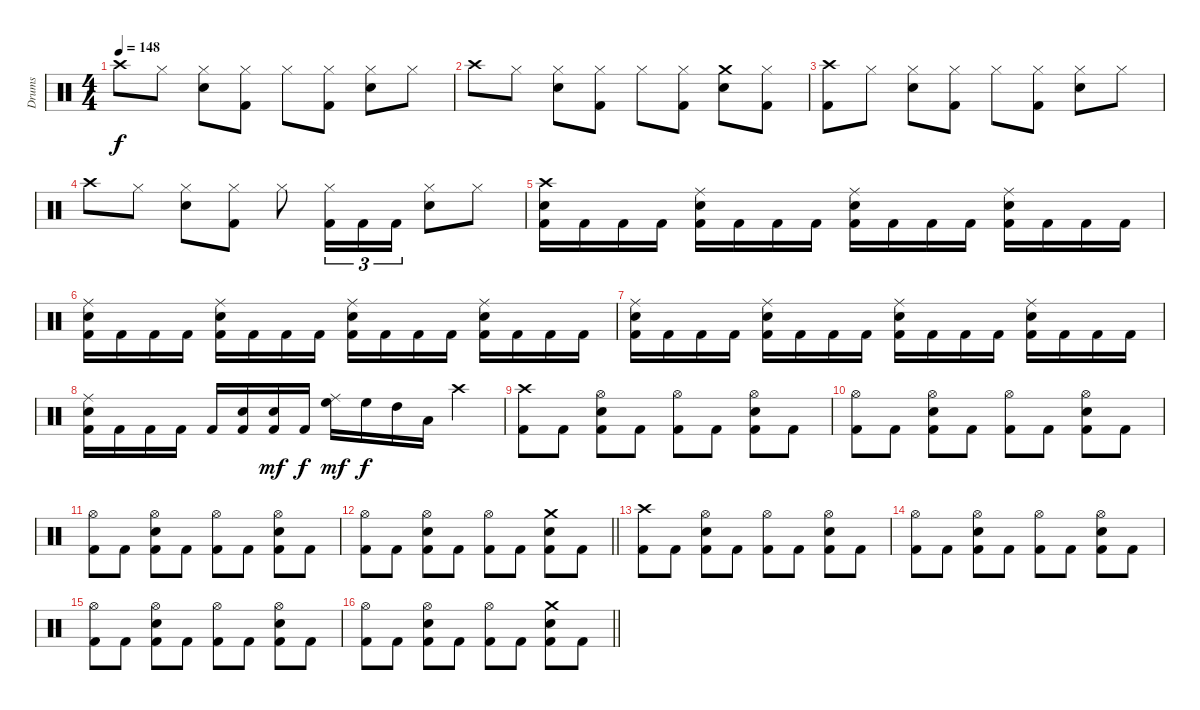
\track ("Drums" "Drums") {instrument percussion}
\staff {score}
\articulation defaults
\ts (4 4)
\section ("" "")
\tempo 148
\clef neutral
\ks c "Crash high (hit)".8{dy f} "Hi-Hat (closed)".8
("Electric Snare (hit)" "Hi-Hat (closed)").8 ("Hi-Hat (closed)" "Kick (hit) 2").8 "Hi-Hat (closed)".8 ("Hi-Hat (closed)" "Kick (hit) 2").8 ("Electric Snare (hit)" "Hi-Hat (closed)").8 "Hi-Hat (closed)".8 |
"Crash high (hit)".8 "Hi-Hat (closed)".8 ("Electric Snare (hit)" "Hi-Hat (closed)").8 ("Hi-Hat (closed)" "Kick (hit) 2").8 "Hi-Hat (closed)".8 ("Hi-Hat (closed)" "Kick (hit) 2").8 ("Electric Snare (hit)" "Crash medium (hit)").8 ("Hi-Hat (closed)" "Kick (hit) 2").8 |
("Crash high (hit)" "Kick (hit) 2").8 "Hi-Hat (closed)".8 ("Electric Snare (hit)" "Hi-Hat (closed)").8 ("Hi-Hat (closed)" "Kick (hit) 2").8 "Hi-Hat (closed)".8 ("Hi-Hat (closed)" "Kick (hit) 2").8 ("Electric Snare (hit)" "Hi-Hat (closed)").8 "Hi-Hat (closed)".8 |
"Crash high (hit)".8 "Hi-Hat (closed)".8 ("Electric Snare (hit)" "Hi-Hat (closed)").8 ("Hi-Hat (closed)" "Kick (hit) 2").8 "Hi-Hat (closed)".8 ("Hi-Hat (closed)" "Kick (hit) 2").16{tu (3 2)} "Kick (hit) 2".16{tu (3 2)} "Kick (hit) 2".16{tu (3 2)} ("Electric Snare (hit)" "Hi-Hat (closed)").8 "Hi-Hat (closed)".8 |
("Electric Snare (hit)" "Crash high (hit)" "Kick (hit) 2").16 "Kick (hit) 2".16 "Kick (hit) 2".16 "Kick (hit) 2".16 ("Electric Snare (hit)" "Ride (middle)" "Kick (hit) 2").16 "Kick (hit) 2".16 "Kick (hit) 2".16 "Kick (hit) 2".16 ("Electric Snare (hit)" "Ride (middle)" "Kick (hit) 2").16 "Kick (hit) 2".16 "Kick (hit) 2".16 "Kick (hit) 2".16 ("Electric Snare (hit)" "Ride (middle)" "Kick (hit) 2").16 "Kick (hit) 2".16 "Kick (hit) 2".16 "Kick (hit) 2".16 |
("Electric Snare (hit)" "Ride (middle)" "Kick (hit) 2").16 "Kick (hit) 2".16 "Kick (hit) 2".16 "Kick (hit) 2".16 ("Electric Snare (hit)" "Ride (middle)" "Kick (hit) 2").16 "Kick (hit) 2".16 "Kick (hit) 2".16 "Kick (hit) 2".16 ("Electric Snare (hit)" "Ride (middle)" "Kick (hit) 2").16 "Kick (hit) 2".16 "Kick (hit) 2".16 "Kick (hit) 2".16 ("Electric Snare (hit)" "Ride (middle)" "Kick (hit) 2").16 "Kick (hit) 2".16 "Kick (hit) 2".16 "Kick (hit) 2".16 |
("Electric Snare (hit)" "Ride (middle)" "Kick (hit) 2").16 "Kick (hit) 2".16 "Kick (hit) 2".16 "Kick (hit) 2".16 ("Electric Snare (hit)" "Ride (middle)" "Kick (hit) 2").16 "Kick (hit) 2".16 "Kick (hit) 2".16 "Kick (hit) 2".16 ("Electric Snare (hit)" "Ride (middle)" "Kick (hit) 2").16 "Kick (hit) 2".16 "Kick (hit) 2".16 "Kick (hit) 2".16 ("Electric Snare (hit)" "Ride (middle)" "Kick (hit) 2").16 "Kick (hit) 2".16 "Kick (hit) 2".16 "Kick (hit) 2".16 |
("Electric Snare (hit)" "Ride (middle)" "Kick (hit) 2").16 "Kick (hit) 2".16 "Kick (hit) 2".16 "Kick (hit) 2".16 "Kick (hit) 2".16 ("Electric Snare (hit)" "Kick (hit) 2").16 ("Electric Snare (hit)" "Kick (hit) 2").16{dy mf} "Kick (hit) 2".16{dy f} ("Ride (middle)" "High Floor Tom (hit)").16{dy mf} "High Floor Tom (hit)".16{dy f} "High Tom (hit)".16 "Low Tom (hit)".16 "Crash high (hit)".4 |
("Crash high (hit)" "Kick (hit) 2").8 "Kick (hit) 2".8 ("Hi-Hat (open)" "Electric Snare (hit)" "Kick (hit) 2").8 "Kick (hit) 2".8 ("Hi-Hat (open)" "Kick (hit) 2").8 "Kick (hit) 2".8 ("Hi-Hat (open)" "Electric Snare (hit)" "Kick (hit) 2").8 "Kick (hit) 2".8 |
("Hi-Hat (open)" "Kick (hit) 2").8 "Kick (hit) 2".8 ("Hi-Hat (open)" "Electric Snare (hit)" "Kick (hit) 2").8 "Kick (hit) 2".8 ("Hi-Hat (open)" "Kick (hit) 2").8 "Kick (hit) 2".8 ("Hi-Hat (open)" "Electric Snare (hit)" "Kick (hit) 2").8 "Kick (hit) 2".8 |
("Hi-Hat (open)" "Kick (hit) 2").8 "Kick (hit) 2".8 ("Hi-Hat (open)" "Electric Snare (hit)" "Kick (hit) 2").8 "Kick (hit) 2".8 ("Hi-Hat (open)" "Kick (hit) 2").8 "Kick (hit) 2".8 ("Hi-Hat (open)" "Electric Snare (hit)" "Kick (hit) 2").8 "Kick (hit) 2".8 |
\barLineRight lightlight
("Hi-Hat (open)" "Kick (hit) 2").8 "Kick (hit) 2".8 ("Hi-Hat (open)" "Electric Snare (hit)" "Kick (hit) 2").8 "Kick (hit) 2".8 ("Hi-Hat (open)" "Kick (hit) 2").8 "Kick (hit) 2".8 ("Crash medium (hit)" "Electric Snare (hit)" "Kick (hit) 2").8 "Kick (hit) 2".8 |
\section ("" "")
("Crash high (hit)" "Kick (hit) 2").8 "Kick (hit) 2".8 ("Hi-Hat (open)" "Electric Snare (hit)" "Kick (hit) 2").8 "Kick (hit) 2".8 ("Hi-Hat (open)" "Kick (hit) 2").8 "Kick (hit) 2".8 ("Hi-Hat (open)" "Electric Snare (hit)" "Kick (hit) 2").8 "Kick (hit) 2".8 |
("Hi-Hat (open)" "Kick (hit) 2").8 "Kick (hit) 2".8 ("Hi-Hat (open)" "Electric Snare (hit)" "Kick (hit) 2").8 "Kick (hit) 2".8 ("Hi-Hat (open)" "Kick (hit) 2").8 "Kick (hit) 2".8 ("Hi-Hat (open)" "Electric Snare (hit)" "Kick (hit) 2").8 "Kick (hit) 2".8 |
("Hi-Hat (open)" "Kick (hit) 2").8 "Kick (hit) 2".8 ("Hi-Hat (open)" "Electric Snare (hit)" "Kick (hit) 2").8 "Kick (hit) 2".8 ("Hi-Hat (open)" "Kick (hit) 2").8 "Kick (hit) 2".8 ("Hi-Hat (open)" "Electric Snare (hit)" "Kick (hit) 2").8 "Kick (hit) 2".8 |
\barLineRight lightlight
("Hi-Hat (open)" "Kick (hit) 2").8 "Kick (hit) 2".8 ("Hi-Hat (open)" "Electric Snare (hit)" "Kick (hit) 2").8 "Kick (hit) 2".8 ("Hi-Hat (open)" "Kick (hit) 2").8 "Kick (hit) 2".8 ("Crash medium (hit)" "Electric Snare (hit)" "Kick (hit) 2").8 "Kick (hit) 2".8
